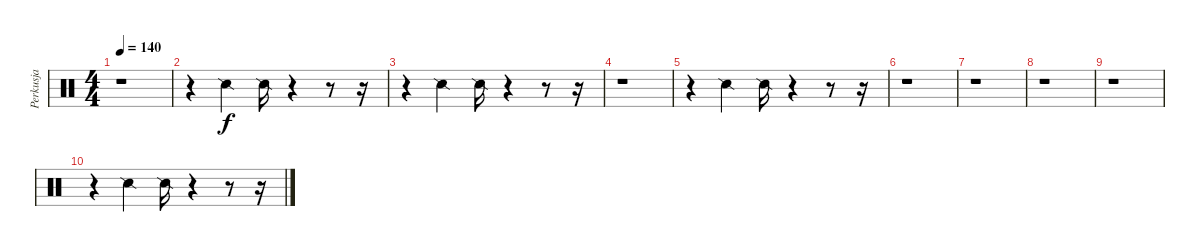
\track ("Perkusja" "Perkusja") {instrument percussion}
\staff {score}
\articulation defaults
\ts (4 4)
\tempo 140
\clef neutral
\ks c
r.1{dy f} |
r.4 "Snare (side stick) 2".4 "Snare (side stick) 2".16 r.4 r.8 r.16 |
r.4 "Snare (side stick) 2".4 "Snare (side stick) 2".16 r.4 r.8 r.16 |
r.1 |
r.4 "Snare (side stick) 2".4 "Snare (side stick) 2".16 r.4 r.8 r.16 |
r.1 |
r.1 |
r.1 |
r.1 |
r.4 "Snare (side stick) 2".4 "Snare (side stick) 2".16 r.4 r.8 r.16
